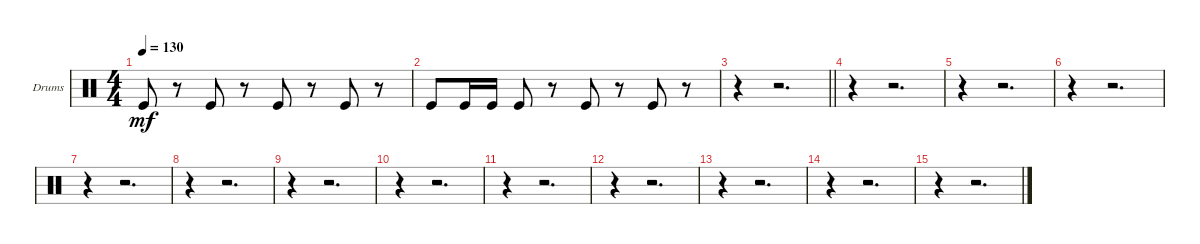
\bracketExtendMode groupsimilarinstruments
\firstSystemTrackNameOrientation horizontal
\otherSystemsTrackNameOrientation horizontal
\track ("Drumkit" "Drums") {instrument percussion}
\staff {score}
\articulation defaults
\ts (4 4)
\tempo 130
\clef neutral
\ks c "Kick (hit)".8{dy mf}
r.8 "Kick (hit)".8 r.8 "Kick (hit)".8 r.8 "Kick (hit)".8 r.8 |
"Kick (hit)".8 "Kick (hit)".16 "Kick (hit)".16 "Kick (hit)".8 r.8 "Kick (hit)".8 r.8 "Kick (hit)".8 r.8 |
\barLineRight lightlight
r.4 r.2{d} |
r.4 r.2{d} |
r.4 r.2{d} |
r.4 r.2{d} |
r.4 r.2{d} |
r.4 r.2{d} |
r.4 r.2{d} |
r.4 r.2{d} |
r.4 r.2{d} |
r.4 r.2{d} |
r.4 r.2{d} |
r.4 r.2{d} |
r.4 r.2{d}
